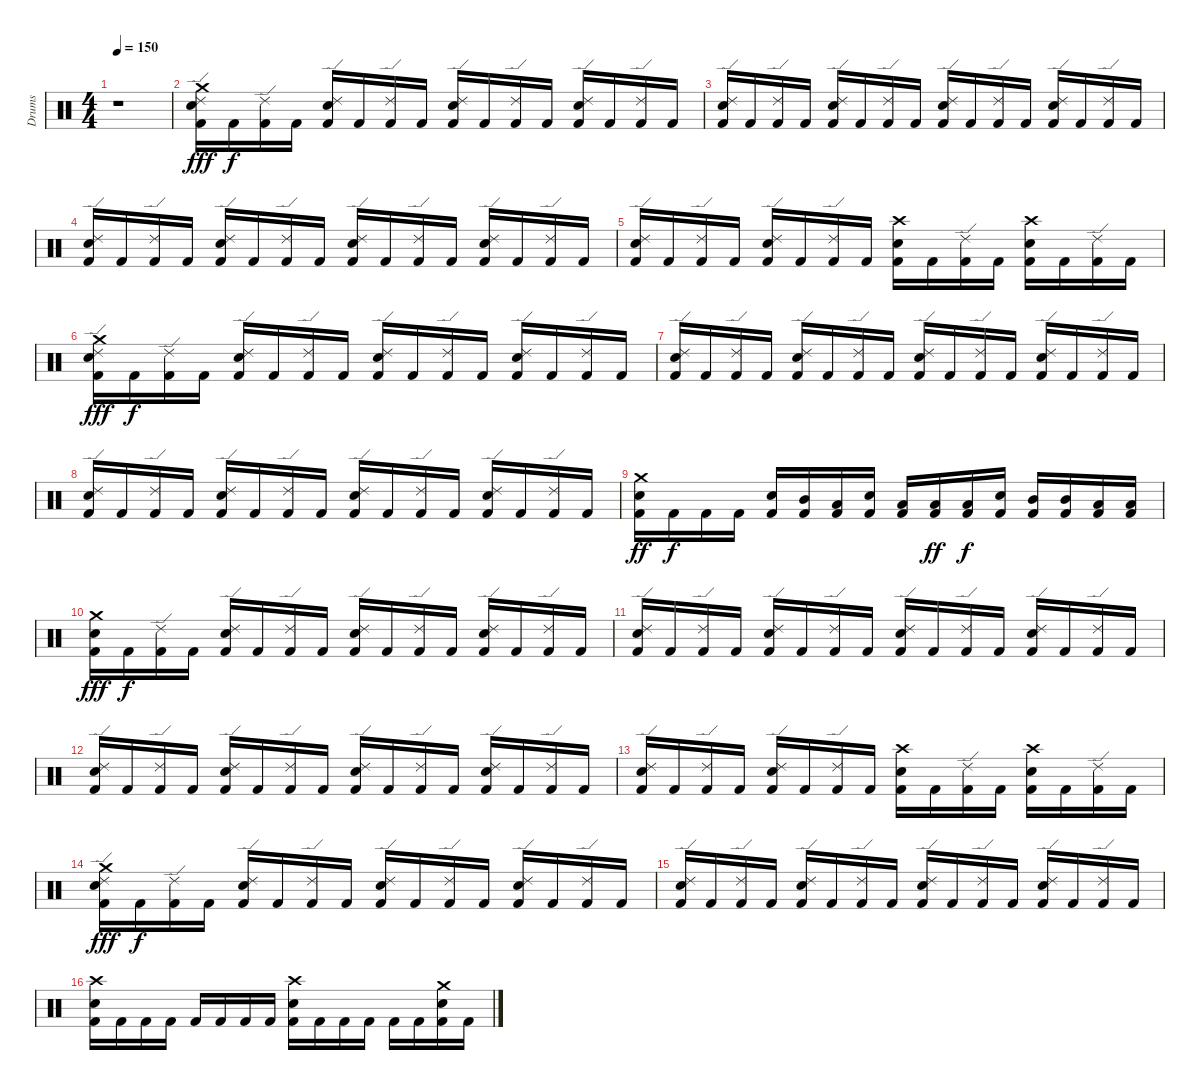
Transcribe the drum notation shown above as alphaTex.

\track ("Drums" "Drums") {instrument percussion}
\staff {score}
\articulation defaults
\ts (4 4)
\tempo 150
\clef neutral
\ks c
r.1{dy f} |
("Crash medium (hit)" "Ride (edge) 2" "Electric Snare (hit)" "Kick (hit) 2").16{dy fff} "Kick (hit) 2".16{dy f} ("Ride (edge) 2" "Kick (hit) 2").16 "Kick (hit) 2".16 ("Ride (edge) 2" "Electric Snare (hit)" "Kick (hit) 2").16 "Kick (hit) 2".16 ("Ride (edge) 2" "Kick (hit) 2").16 "Kick (hit) 2".16 ("Ride (edge) 2" "Electric Snare (hit)" "Kick (hit) 2").16 "Kick (hit) 2".16 ("Ride (edge) 2" "Kick (hit) 2").16 "Kick (hit) 2".16 ("Ride (edge) 2" "Electric Snare (hit)" "Kick (hit) 2").16 "Kick (hit) 2".16 ("Ride (edge) 2" "Kick (hit) 2").16 "Kick (hit) 2".16 |
("Ride (edge) 2" "Electric Snare (hit)" "Kick (hit) 2").16 "Kick (hit) 2".16 ("Ride (edge) 2" "Kick (hit) 2").16 "Kick (hit) 2".16 ("Ride (edge) 2" "Electric Snare (hit)" "Kick (hit) 2").16 "Kick (hit) 2".16 ("Ride (edge) 2" "Kick (hit) 2").16 "Kick (hit) 2".16 ("Ride (edge) 2" "Electric Snare (hit)" "Kick (hit) 2").16 "Kick (hit) 2".16 ("Ride (edge) 2" "Kick (hit) 2").16 "Kick (hit) 2".16 ("Ride (edge) 2" "Electric Snare (hit)" "Kick (hit) 2").16 "Kick (hit) 2".16 ("Ride (edge) 2" "Kick (hit) 2").16 "Kick (hit) 2".16 |
("Ride (edge) 2" "Electric Snare (hit)" "Kick (hit) 2").16 "Kick (hit) 2".16 ("Ride (edge) 2" "Kick (hit) 2").16 "Kick (hit) 2".16 ("Ride (edge) 2" "Electric Snare (hit)" "Kick (hit) 2").16 "Kick (hit) 2".16 ("Ride (edge) 2" "Kick (hit) 2").16 "Kick (hit) 2".16 ("Ride (edge) 2" "Electric Snare (hit)" "Kick (hit) 2").16 "Kick (hit) 2".16 ("Ride (edge) 2" "Kick (hit) 2").16 "Kick (hit) 2".16 ("Ride (edge) 2" "Electric Snare (hit)" "Kick (hit) 2").16 "Kick (hit) 2".16 ("Ride (edge) 2" "Kick (hit) 2").16 "Kick (hit) 2".16 |
("Ride (edge) 2" "Electric Snare (hit)" "Kick (hit) 2").16 "Kick (hit) 2".16 ("Ride (edge) 2" "Kick (hit) 2").16 "Kick (hit) 2".16 ("Ride (edge) 2" "Electric Snare (hit)" "Kick (hit) 2").16 "Kick (hit) 2".16 ("Ride (edge) 2" "Kick (hit) 2").16 "Kick (hit) 2".16 ("Crash high (hit)" "Electric Snare (hit)" "Kick (hit) 2").16 "Kick (hit) 2".16 ("Ride (edge) 2" "Kick (hit) 2").16 "Kick (hit) 2".16 ("Crash high (hit)" "Electric Snare (hit)" "Kick (hit) 2").16 "Kick (hit) 2".16 ("Ride (edge) 2" "Kick (hit) 2").16 "Kick (hit) 2".16 |
("Crash medium (hit)" "Ride (edge) 2" "Electric Snare (hit)" "Kick (hit) 2").16{dy fff} "Kick (hit) 2".16{dy f} ("Ride (edge) 2" "Kick (hit) 2").16 "Kick (hit) 2".16 ("Ride (edge) 2" "Electric Snare (hit)" "Kick (hit) 2").16 "Kick (hit) 2".16 ("Ride (edge) 2" "Kick (hit) 2").16 "Kick (hit) 2".16 ("Ride (edge) 2" "Electric Snare (hit)" "Kick (hit) 2").16 "Kick (hit) 2".16 ("Ride (edge) 2" "Kick (hit) 2").16 "Kick (hit) 2".16 ("Ride (edge) 2" "Electric Snare (hit)" "Kick (hit) 2").16 "Kick (hit) 2".16 ("Ride (edge) 2" "Kick (hit) 2").16 "Kick (hit) 2".16 |
("Ride (edge) 2" "Electric Snare (hit)" "Kick (hit) 2").16 "Kick (hit) 2".16 ("Ride (edge) 2" "Kick (hit) 2").16 "Kick (hit) 2".16 ("Ride (edge) 2" "Electric Snare (hit)" "Kick (hit) 2").16 "Kick (hit) 2".16 ("Ride (edge) 2" "Kick (hit) 2").16 "Kick (hit) 2".16 ("Ride (edge) 2" "Electric Snare (hit)" "Kick (hit) 2").16 "Kick (hit) 2".16 ("Ride (edge) 2" "Kick (hit) 2").16 "Kick (hit) 2".16 ("Ride (edge) 2" "Electric Snare (hit)" "Kick (hit) 2").16 "Kick (hit) 2".16 ("Ride (edge) 2" "Kick (hit) 2").16 "Kick (hit) 2".16 |
("Ride (edge) 2" "Electric Snare (hit)" "Kick (hit) 2").16 "Kick (hit) 2".16 ("Ride (edge) 2" "Kick (hit) 2").16 "Kick (hit) 2".16 ("Ride (edge) 2" "Electric Snare (hit)" "Kick (hit) 2").16 "Kick (hit) 2".16 ("Ride (edge) 2" "Kick (hit) 2").16 "Kick (hit) 2".16 ("Ride (edge) 2" "Electric Snare (hit)" "Kick (hit) 2").16 "Kick (hit) 2".16 ("Ride (edge) 2" "Kick (hit) 2").16 "Kick (hit) 2".16 ("Ride (edge) 2" "Electric Snare (hit)" "Kick (hit) 2").16 "Kick (hit) 2".16 ("Ride (edge) 2" "Kick (hit) 2").16 "Kick (hit) 2".16 |
("Crash medium (hit)" "Electric Snare (hit)" "Kick (hit) 2").16{dy ff} "Kick (hit) 2".16{dy f} "Kick (hit) 2".16 "Kick (hit) 2".16 ("Electric Snare (hit)" "Kick (hit) 2").16 ("Mid Tom (hit)" "Kick (hit) 2").16 ("Low Tom (hit)" "Kick (hit) 2").16 ("Electric Snare (hit)" "Kick (hit) 2").16 ("Low Tom (hit)" "Kick (hit) 2").16 ("Low Tom (hit)" "Kick (hit) 2").16{dy ff} ("Low Tom (hit)" "Kick (hit) 2").16{dy f} ("Electric Snare (hit)" "Kick (hit) 2").16 ("Mid Tom (hit)" "Kick (hit) 2").16 ("Mid Tom (hit)" "Kick (hit) 2").16 ("Low Tom (hit)" "Kick (hit) 2").16 ("Low Tom (hit)" "Kick (hit) 2").16 |
("Crash medium (hit)" "Electric Snare (hit)" "Kick (hit) 2").16{dy fff} "Kick (hit) 2".16{dy f} ("Ride (edge) 2" "Kick (hit) 2").16 "Kick (hit) 2".16 ("Ride (edge) 2" "Electric Snare (hit)" "Kick (hit) 2").16 "Kick (hit) 2".16 ("Ride (edge) 2" "Kick (hit) 2").16 "Kick (hit) 2".16 ("Ride (edge) 2" "Electric Snare (hit)" "Kick (hit) 2").16 "Kick (hit) 2".16 ("Ride (edge) 2" "Kick (hit) 2").16 "Kick (hit) 2".16 ("Ride (edge) 2" "Electric Snare (hit)" "Kick (hit) 2").16 "Kick (hit) 2".16 ("Ride (edge) 2" "Kick (hit) 2").16 "Kick (hit) 2".16 |
("Ride (edge) 2" "Electric Snare (hit)" "Kick (hit) 2").16 "Kick (hit) 2".16 ("Ride (edge) 2" "Kick (hit) 2").16 "Kick (hit) 2".16 ("Ride (edge) 2" "Electric Snare (hit)" "Kick (hit) 2").16 "Kick (hit) 2".16 ("Ride (edge) 2" "Kick (hit) 2").16 "Kick (hit) 2".16 ("Ride (edge) 2" "Electric Snare (hit)" "Kick (hit) 2").16 "Kick (hit) 2".16 ("Ride (edge) 2" "Kick (hit) 2").16 "Kick (hit) 2".16 ("Ride (edge) 2" "Electric Snare (hit)" "Kick (hit) 2").16 "Kick (hit) 2".16 ("Ride (edge) 2" "Kick (hit) 2").16 "Kick (hit) 2".16 |
("Ride (edge) 2" "Electric Snare (hit)" "Kick (hit) 2").16 "Kick (hit) 2".16 ("Ride (edge) 2" "Kick (hit) 2").16 "Kick (hit) 2".16 ("Ride (edge) 2" "Electric Snare (hit)" "Kick (hit) 2").16 "Kick (hit) 2".16 ("Ride (edge) 2" "Kick (hit) 2").16 "Kick (hit) 2".16 ("Ride (edge) 2" "Electric Snare (hit)" "Kick (hit) 2").16 "Kick (hit) 2".16 ("Ride (edge) 2" "Kick (hit) 2").16 "Kick (hit) 2".16 ("Ride (edge) 2" "Electric Snare (hit)" "Kick (hit) 2").16 "Kick (hit) 2".16 ("Ride (edge) 2" "Kick (hit) 2").16 "Kick (hit) 2".16 |
("Ride (edge) 2" "Electric Snare (hit)" "Kick (hit) 2").16 "Kick (hit) 2".16 ("Ride (edge) 2" "Kick (hit) 2").16 "Kick (hit) 2".16 ("Ride (edge) 2" "Electric Snare (hit)" "Kick (hit) 2").16 "Kick (hit) 2".16 ("Ride (edge) 2" "Kick (hit) 2").16 "Kick (hit) 2".16 ("Crash high (hit)" "Electric Snare (hit)" "Kick (hit) 2").16 "Kick (hit) 2".16 ("Ride (edge) 2" "Kick (hit) 2").16 "Kick (hit) 2".16 ("Crash high (hit)" "Electric Snare (hit)" "Kick (hit) 2").16 "Kick (hit) 2".16 ("Ride (edge) 2" "Kick (hit) 2").16 "Kick (hit) 2".16 |
("Crash medium (hit)" "Ride (edge) 2" "Electric Snare (hit)" "Kick (hit) 2").16{dy fff} "Kick (hit) 2".16{dy f} ("Ride (edge) 2" "Kick (hit) 2").16 "Kick (hit) 2".16 ("Ride (edge) 2" "Electric Snare (hit)" "Kick (hit) 2").16 "Kick (hit) 2".16 ("Ride (edge) 2" "Kick (hit) 2").16 "Kick (hit) 2".16 ("Ride (edge) 2" "Electric Snare (hit)" "Kick (hit) 2").16 "Kick (hit) 2".16 ("Ride (edge) 2" "Kick (hit) 2").16 "Kick (hit) 2".16 ("Ride (edge) 2" "Electric Snare (hit)" "Kick (hit) 2").16 "Kick (hit) 2".16 ("Ride (edge) 2" "Kick (hit) 2").16 "Kick (hit) 2".16 |
("Ride (edge) 2" "Electric Snare (hit)" "Kick (hit) 2").16 "Kick (hit) 2".16 ("Ride (edge) 2" "Kick (hit) 2").16 "Kick (hit) 2".16 ("Ride (edge) 2" "Electric Snare (hit)" "Kick (hit) 2").16 "Kick (hit) 2".16 ("Ride (edge) 2" "Kick (hit) 2").16 "Kick (hit) 2".16 ("Ride (edge) 2" "Electric Snare (hit)" "Kick (hit) 2").16 "Kick (hit) 2".16 ("Ride (edge) 2" "Kick (hit) 2").16 "Kick (hit) 2".16 ("Ride (edge) 2" "Electric Snare (hit)" "Kick (hit) 2").16 "Kick (hit) 2".16 ("Ride (edge) 2" "Kick (hit) 2").16 "Kick (hit) 2".16 |
("Crash high (hit)" "Electric Snare (hit)" "Kick (hit) 2").16 "Kick (hit) 2".16 "Kick (hit) 2".16 "Kick (hit) 2".16 "Kick (hit) 2".16 "Kick (hit) 2".16 "Kick (hit) 2".16 "Kick (hit) 2".16 ("Crash high (hit)" "Electric Snare (hit)" "Kick (hit) 2").16 "Kick (hit) 2".16 "Kick (hit) 2".16 "Kick (hit) 2".16 "Kick (hit) 2".16 "Kick (hit) 2".16 ("Crash medium (hit)" "Electric Snare (hit)" "Kick (hit) 2").16 "Kick (hit) 2".16
